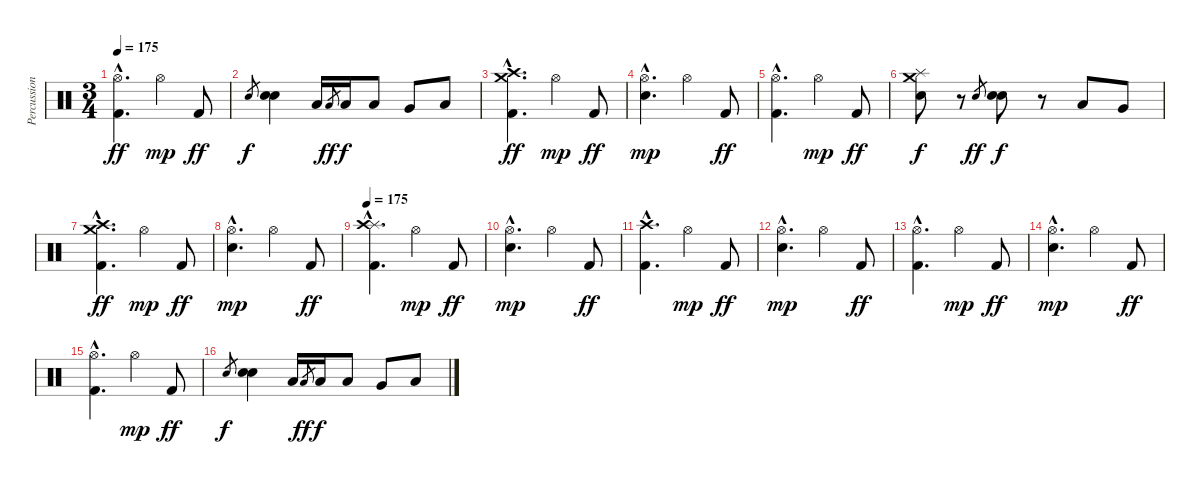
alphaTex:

\track ("Percussion" "Percussion") {instrument percussion}
\staff {score}
\articulation defaults
\ts (3 4)
\tempo 175
\clef neutral
\ks c
("Hi-Hat (open)"{hac} "Kick (hit) 2"{hac}).4{d dy ff} "Hi-Hat (open)".4{dy mp} "Kick (hit) 2".8{dy ff} |
"Snare (hit) 2".8{gr dy f} ("Snare (hit) 2" "Snare (hit) 2").4 "Low Tom (hit)".16 "Low Tom (hit)".8{gr dy ff} "Low Tom (hit)".16{dy f} "Low Tom (hit)".8 "Very Low Tom (hit)".8 "Low Floor Tom (hit)".8 |
("Crash medium (hit)"{hac} "Crash high (hit)"{hac} "Kick (hit) 2"{hac}).4{d dy ff} "Hi-Hat (open)".4{dy mp} "Kick (hit) 2".8{dy ff} |
("Hi-Hat (open)"{hac} "Snare (hit) 2"{hac}).4{d dy mp} "Hi-Hat (open)".4 "Kick (hit) 2".8{dy ff} |
("Hi-Hat (open)"{hac} "Kick (hit) 2"{hac}).4{d} "Hi-Hat (open)".4{dy mp} "Kick (hit) 2".8{dy ff} |
("Splash (hit)" "Crash medium (hit)" "Snare (hit) 2").8{dy f} r.8 "Snare (hit) 2".8{gr dy ff} ("Snare (hit) 2" "Snare (hit) 2").8{dy f} r.8 "Low Tom (hit)".8 "Very Low Tom (hit)".8 |
("Crash medium (hit)"{hac} "Crash high (hit)"{hac} "Kick (hit) 2"{hac}).4{d dy ff} "Hi-Hat (open)".4{dy mp} "Kick (hit) 2".8{dy ff} |
("Hi-Hat (open)"{hac} "Snare (hit) 2"{hac}).4{d dy mp} "Hi-Hat (open)".4 "Kick (hit) 2".8{dy ff} |
\tempo 175
("Splash (hit)"{hac} "Crash high (hit)"{hac} "Kick (hit) 2"{hac}).4{d} "Hi-Hat (open)".4{dy mp} "Kick (hit) 2".8{dy ff} |
("Hi-Hat (open)"{hac} "Snare (hit) 2"{hac}).4{d dy mp} "Hi-Hat (open)".4 "Kick (hit) 2".8{dy ff} |
("Crash high (hit)"{hac} "Kick (hit) 2"{hac}).4{d} "Hi-Hat (open)".4{dy mp} "Kick (hit) 2".8{dy ff} |
("Hi-Hat (open)"{hac} "Snare (hit) 2"{hac}).4{d dy mp} "Hi-Hat (open)".4 "Kick (hit) 2".8{dy ff} |
("Hi-Hat (open)"{hac} "Kick (hit) 2"{hac}).4{d} "Hi-Hat (open)".4{dy mp} "Kick (hit) 2".8{dy ff} |
("Hi-Hat (open)"{hac} "Snare (hit) 2"{hac}).4{d dy mp} "Hi-Hat (open)".4 "Kick (hit) 2".8{dy ff} |
("Hi-Hat (open)"{hac} "Kick (hit) 2"{hac}).4{d} "Hi-Hat (open)".4{dy mp} "Kick (hit) 2".8{dy ff} |
"Snare (hit) 2".8{gr dy f} ("Snare (hit) 2" "Snare (hit) 2").4 "Low Tom (hit)".16 "Low Tom (hit)".8{gr dy ff} "Low Tom (hit)".16{dy f} "Low Tom (hit)".8 "Very Low Tom (hit)".8 "Low Floor Tom (hit)".8
